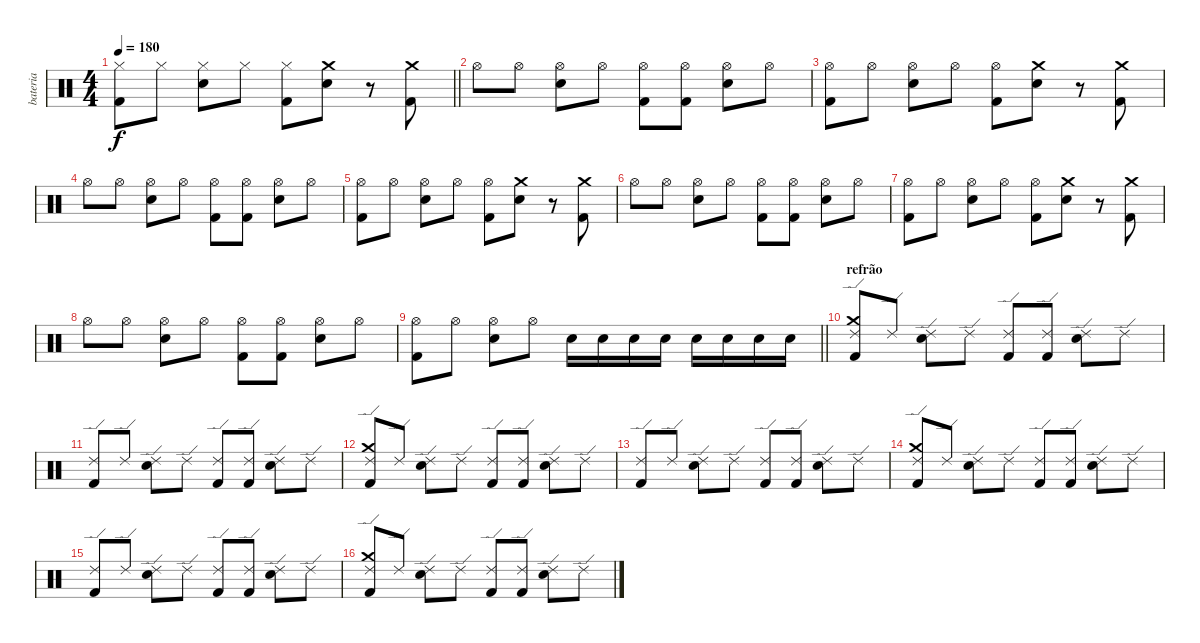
\track ("bateria" "bateria") {instrument percussion}
\staff {score}
\articulation defaults
\ts (4 4)
\tempo 180
\clef neutral
\barLineRight lightlight
\ks c
("Hi-Hat (closed)" "Kick (hit) 2").8{dy f} "Hi-Hat (closed)".8 ("Hi-Hat (closed)" "Electric Snare (hit)").8 "Hi-Hat (closed)".8 ("Hi-Hat (closed)" "Kick (hit) 2").8 ("Electric Snare (hit)" "Crash medium (hit)").8 r.8 ("Kick (hit) 2" "Crash medium (hit)").8 |
"Hi-Hat (open)".8 "Hi-Hat (open)".8 ("Hi-Hat (open)" "Electric Snare (hit)").8 "Hi-Hat (open)".8 ("Hi-Hat (open)" "Kick (hit) 2").8 ("Hi-Hat (open)" "Kick (hit) 2").8 ("Hi-Hat (open)" "Electric Snare (hit)").8 "Hi-Hat (open)".8 |
("Hi-Hat (open)" "Kick (hit) 2").8 "Hi-Hat (open)".8 ("Hi-Hat (open)" "Electric Snare (hit)").8 "Hi-Hat (open)".8 ("Hi-Hat (open)" "Kick (hit) 2").8 ("Electric Snare (hit)" "Crash medium (hit)").8 r.8 ("Kick (hit) 2" "Crash medium (hit)").8 |
"Hi-Hat (open)".8 "Hi-Hat (open)".8 ("Hi-Hat (open)" "Electric Snare (hit)").8 "Hi-Hat (open)".8 ("Hi-Hat (open)" "Kick (hit) 2").8 ("Hi-Hat (open)" "Kick (hit) 2").8 ("Hi-Hat (open)" "Electric Snare (hit)").8 "Hi-Hat (open)".8 |
("Hi-Hat (open)" "Kick (hit) 2").8 "Hi-Hat (open)".8 ("Hi-Hat (open)" "Electric Snare (hit)").8 "Hi-Hat (open)".8 ("Hi-Hat (open)" "Kick (hit) 2").8 ("Electric Snare (hit)" "Crash medium (hit)").8 r.8 ("Kick (hit) 2" "Crash medium (hit)").8 |
"Hi-Hat (open)".8 "Hi-Hat (open)".8 ("Hi-Hat (open)" "Electric Snare (hit)").8 "Hi-Hat (open)".8 ("Hi-Hat (open)" "Kick (hit) 2").8 ("Hi-Hat (open)" "Kick (hit) 2").8 ("Hi-Hat (open)" "Electric Snare (hit)").8 "Hi-Hat (open)".8 |
("Hi-Hat (open)" "Kick (hit) 2").8 "Hi-Hat (open)".8 ("Hi-Hat (open)" "Electric Snare (hit)").8 "Hi-Hat (open)".8 ("Hi-Hat (open)" "Kick (hit) 2").8 ("Electric Snare (hit)" "Crash medium (hit)").8 r.8 ("Kick (hit) 2" "Crash medium (hit)").8 |
"Hi-Hat (open)".8 "Hi-Hat (open)".8 ("Hi-Hat (open)" "Electric Snare (hit)").8 "Hi-Hat (open)".8 ("Hi-Hat (open)" "Kick (hit) 2").8 ("Hi-Hat (open)" "Kick (hit) 2").8 ("Hi-Hat (open)" "Electric Snare (hit)").8 "Hi-Hat (open)".8 |
\barLineRight lightlight
("Hi-Hat (open)" "Kick (hit) 2").8 "Hi-Hat (open)".8 ("Hi-Hat (open)" "Electric Snare (hit)").8 "Hi-Hat (open)".8 "Electric Snare (hit)".16 "Electric Snare (hit)".16 "Electric Snare (hit)".16 "Electric Snare (hit)".16 "Electric Snare (hit)".16 "Electric Snare (hit)".16 "Electric Snare (hit)".16 "Electric Snare (hit)".16 |
\section ("" "refrão")
("Ride (edge) 2" "Kick (hit) 2" "Crash medium (hit)").8 "Ride (edge) 2".8 ("Ride (edge) 2" "Electric Snare (hit)").8 "Ride (edge) 2".8 ("Ride (edge) 2" "Kick (hit) 2").8 ("Ride (edge) 2" "Kick (hit) 2").8 ("Ride (edge) 2" "Electric Snare (hit)").8 "Ride (edge) 2".8 |
("Ride (edge) 2" "Kick (hit) 2").8 "Ride (edge) 2".8 ("Ride (edge) 2" "Electric Snare (hit)").8 "Ride (edge) 2".8 ("Ride (edge) 2" "Kick (hit) 2").8 ("Ride (edge) 2" "Kick (hit) 2").8 ("Ride (edge) 2" "Electric Snare (hit)").8 "Ride (edge) 2".8 |
("Ride (edge) 2" "Kick (hit) 2" "Crash medium (hit)").8 "Ride (edge) 2".8 ("Ride (edge) 2" "Electric Snare (hit)").8 "Ride (edge) 2".8 ("Ride (edge) 2" "Kick (hit) 2").8 ("Ride (edge) 2" "Kick (hit) 2").8 ("Ride (edge) 2" "Electric Snare (hit)").8 "Ride (edge) 2".8 |
("Ride (edge) 2" "Kick (hit) 2").8 "Ride (edge) 2".8 ("Ride (edge) 2" "Electric Snare (hit)").8 "Ride (edge) 2".8 ("Ride (edge) 2" "Kick (hit) 2").8 ("Ride (edge) 2" "Kick (hit) 2").8 ("Ride (edge) 2" "Electric Snare (hit)").8 "Ride (edge) 2".8 |
("Ride (edge) 2" "Kick (hit) 2" "Crash medium (hit)").8 "Ride (edge) 2".8 ("Ride (edge) 2" "Electric Snare (hit)").8 "Ride (edge) 2".8 ("Ride (edge) 2" "Kick (hit) 2").8 ("Ride (edge) 2" "Kick (hit) 2").8 ("Ride (edge) 2" "Electric Snare (hit)").8 "Ride (edge) 2".8 |
("Ride (edge) 2" "Kick (hit) 2").8 "Ride (edge) 2".8 ("Ride (edge) 2" "Electric Snare (hit)").8 "Ride (edge) 2".8 ("Ride (edge) 2" "Kick (hit) 2").8 ("Ride (edge) 2" "Kick (hit) 2").8 ("Ride (edge) 2" "Electric Snare (hit)").8 "Ride (edge) 2".8 |
("Ride (edge) 2" "Kick (hit) 2" "Crash medium (hit)").8 "Ride (edge) 2".8 ("Ride (edge) 2" "Electric Snare (hit)").8 "Ride (edge) 2".8 ("Ride (edge) 2" "Kick (hit) 2").8 ("Ride (edge) 2" "Kick (hit) 2").8 ("Ride (edge) 2" "Electric Snare (hit)").8 "Ride (edge) 2".8
